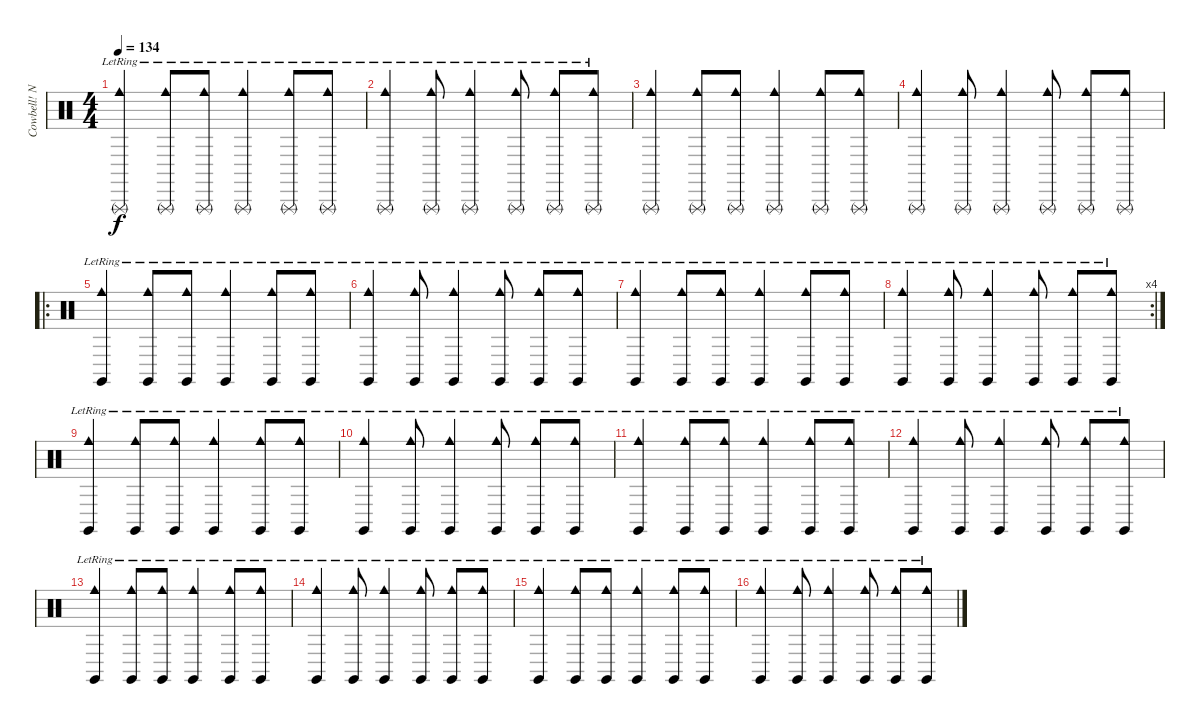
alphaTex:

\track ("Cowbell! Need More Cowbell!" "Cowbell! N") {instrument percussion}
\staff {score}
\articulation defaults
\ts (4 4)
\tempo 134
\clef neutral
\ks c
("Cowbell medium (hit)"{lr} "Triangle (rnute)").4{dy f} ("Cowbell medium (hit)"{lr} "Triangle (rnute)").8 ("Cowbell medium (hit)"{lr} "Triangle (rnute)").8 ("Cowbell medium (hit)"{lr} "Triangle (rnute)").4 ("Cowbell medium (hit)"{lr} "Triangle (rnute)").8 ("Cowbell medium (hit)"{lr} "Triangle (rnute)").8 |
("Cowbell medium (hit)"{lr} "Triangle (rnute)").4 ("Cowbell medium (hit)"{lr} "Triangle (rnute)").8 ("Cowbell medium (hit)"{lr} "Triangle (rnute)").4 ("Cowbell medium (hit)"{lr} "Triangle (rnute)").8 ("Cowbell medium (hit)"{lr} "Triangle (rnute)").8 ("Cowbell medium (hit)"{lr} "Triangle (rnute)").8 |
("Cowbell medium (hit)" "Triangle (rnute)").4 ("Cowbell medium (hit)" "Triangle (rnute)").8 ("Cowbell medium (hit)" "Triangle (rnute)").8 ("Cowbell medium (hit)" "Triangle (rnute)").4 ("Cowbell medium (hit)" "Triangle (rnute)").8 ("Cowbell medium (hit)" "Triangle (rnute)").8 |
("Cowbell medium (hit)" "Triangle (rnute)").4 ("Cowbell medium (hit)" "Triangle (rnute)").8 ("Cowbell medium (hit)" "Triangle (rnute)").4 ("Cowbell medium (hit)" "Triangle (rnute)").8 ("Cowbell medium (hit)" "Triangle (rnute)").8 ("Cowbell medium (hit)" "Triangle (rnute)").8 |
\ro
("Cowbell medium (hit)"{lr} "Claves (hit)").4 ("Cowbell medium (hit)"{lr} "Claves (hit)").8 ("Cowbell medium (hit)"{lr} "Claves (hit)").8 ("Cowbell medium (hit)"{lr} "Claves (hit)").4 ("Cowbell medium (hit)"{lr} "Claves (hit)").8 ("Cowbell medium (hit)"{lr} "Claves (hit)").8 |
("Cowbell medium (hit)"{lr} "Claves (hit)").4 ("Cowbell medium (hit)"{lr} "Claves (hit)").8 ("Cowbell medium (hit)"{lr} "Claves (hit)").4 ("Cowbell medium (hit)"{lr} "Claves (hit)").8 ("Cowbell medium (hit)"{lr} "Claves (hit)").8 ("Cowbell medium (hit)"{lr} "Claves (hit)").8 |
("Cowbell medium (hit)"{lr} "Claves (hit)").4 ("Cowbell medium (hit)"{lr} "Claves (hit)").8 ("Cowbell medium (hit)"{lr} "Claves (hit)").8 ("Cowbell medium (hit)"{lr} "Claves (hit)").4 ("Cowbell medium (hit)"{lr} "Claves (hit)").8 ("Cowbell medium (hit)"{lr} "Claves (hit)").8 |
\rc 4
("Cowbell medium (hit)"{lr} "Claves (hit)").4 ("Cowbell medium (hit)"{lr} "Claves (hit)").8 ("Cowbell medium (hit)"{lr} "Claves (hit)").4 ("Cowbell medium (hit)"{lr} "Claves (hit)").8 ("Cowbell medium (hit)"{lr} "Claves (hit)").8 ("Cowbell medium (hit)"{lr} "Claves (hit)").8 |
("Cowbell medium (hit)"{lr} "Claves (hit)").4 ("Cowbell medium (hit)"{lr} "Claves (hit)").8 ("Cowbell medium (hit)"{lr} "Claves (hit)").8 ("Cowbell medium (hit)"{lr} "Claves (hit)").4 ("Cowbell medium (hit)"{lr} "Claves (hit)").8 ("Cowbell medium (hit)"{lr} "Claves (hit)").8 |
("Cowbell medium (hit)"{lr} "Claves (hit)").4 ("Cowbell medium (hit)"{lr} "Claves (hit)").8 ("Cowbell medium (hit)"{lr} "Claves (hit)").4 ("Cowbell medium (hit)"{lr} "Claves (hit)").8 ("Cowbell medium (hit)"{lr} "Claves (hit)").8 ("Cowbell medium (hit)"{lr} "Claves (hit)").8 |
("Cowbell medium (hit)"{lr} "Claves (hit)").4 ("Cowbell medium (hit)"{lr} "Claves (hit)").8 ("Cowbell medium (hit)"{lr} "Claves (hit)").8 ("Cowbell medium (hit)"{lr} "Claves (hit)").4 ("Cowbell medium (hit)"{lr} "Claves (hit)").8 ("Cowbell medium (hit)"{lr} "Claves (hit)").8 |
("Cowbell medium (hit)"{lr} "Claves (hit)").4 ("Cowbell medium (hit)"{lr} "Claves (hit)").8 ("Cowbell medium (hit)"{lr} "Claves (hit)").4 ("Cowbell medium (hit)"{lr} "Claves (hit)").8 ("Cowbell medium (hit)"{lr} "Claves (hit)").8 ("Cowbell medium (hit)"{lr} "Claves (hit)").8 |
("Cowbell medium (hit)"{lr} "Claves (hit)").4 ("Cowbell medium (hit)"{lr} "Claves (hit)").8 ("Cowbell medium (hit)"{lr} "Claves (hit)").8 ("Cowbell medium (hit)"{lr} "Claves (hit)").4 ("Cowbell medium (hit)"{lr} "Claves (hit)").8 ("Cowbell medium (hit)"{lr} "Claves (hit)").8 |
("Cowbell medium (hit)"{lr} "Claves (hit)").4 ("Cowbell medium (hit)"{lr} "Claves (hit)").8 ("Cowbell medium (hit)"{lr} "Claves (hit)").4 ("Cowbell medium (hit)"{lr} "Claves (hit)").8 ("Cowbell medium (hit)"{lr} "Claves (hit)").8 ("Cowbell medium (hit)"{lr} "Claves (hit)").8 |
("Cowbell medium (hit)"{lr} "Claves (hit)").4 ("Cowbell medium (hit)"{lr} "Claves (hit)").8 ("Cowbell medium (hit)"{lr} "Claves (hit)").8 ("Cowbell medium (hit)"{lr} "Claves (hit)").4 ("Cowbell medium (hit)"{lr} "Claves (hit)").8 ("Cowbell medium (hit)"{lr} "Claves (hit)").8 |
("Cowbell medium (hit)"{lr} "Claves (hit)").4 ("Cowbell medium (hit)"{lr} "Claves (hit)").8 ("Cowbell medium (hit)"{lr} "Claves (hit)").4 ("Cowbell medium (hit)"{lr} "Claves (hit)").8 ("Cowbell medium (hit)"{lr} "Claves (hit)").8 ("Cowbell medium (hit)"{lr} "Claves (hit)").8
